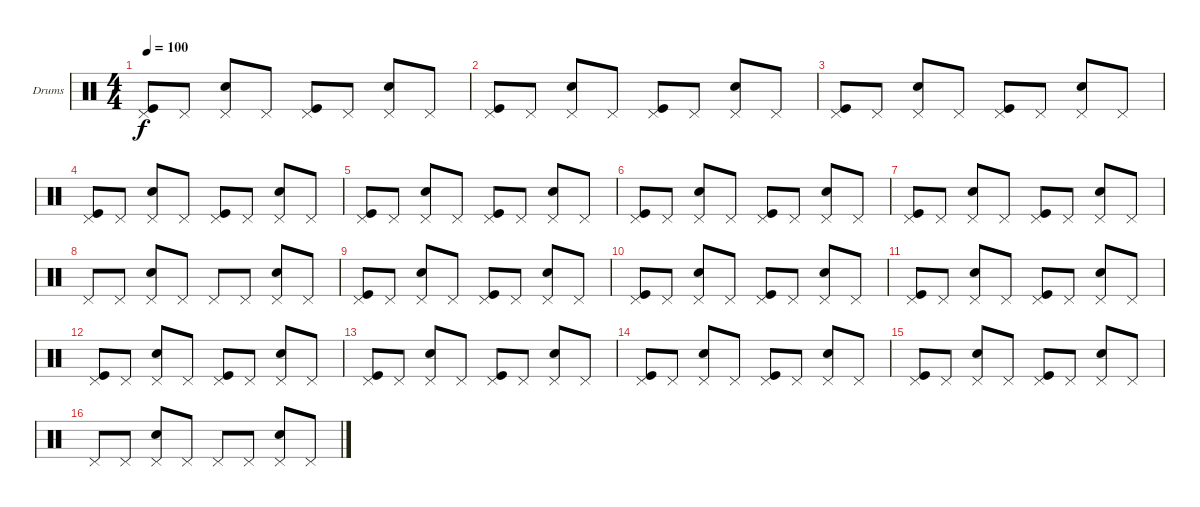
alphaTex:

\defaultSystemsLayout 4
\bracketExtendMode groupsimilarinstruments
\firstSystemTrackNameOrientation horizontal
\otherSystemsTrackNameOrientation horizontal
\track ("Drumkit" "Drums") {instrument percussion}
\staff {score}
\articulation defaults
\ts (4 4)
\tempo 100
\clef neutral
\scale
0.474178
\ks c
("Pedal Hi-Hat (hit)" "Kick (hit)").8{dy f} "Pedal Hi-Hat (hit)".8 ("Pedal Hi-Hat (hit)" "Snare (hit) 2").8 "Pedal Hi-Hat (hit)".8 ("Pedal Hi-Hat (hit)" "Kick (hit)").8 "Pedal Hi-Hat (hit)".8 ("Pedal Hi-Hat (hit)" "Snare (hit) 2").8 "Pedal Hi-Hat (hit)".8 |
\scale
0.262911 ("Pedal Hi-Hat (hit)" "Kick (hit)").8 "Pedal Hi-Hat (hit)".8 ("Pedal Hi-Hat (hit)" "Snare (hit) 2").8 "Pedal Hi-Hat (hit)".8 ("Pedal Hi-Hat (hit)" "Kick (hit)").8 "Pedal Hi-Hat (hit)".8 ("Pedal Hi-Hat (hit)" "Snare (hit) 2").8 "Pedal Hi-Hat (hit)".8 |
\scale
0.262911 ("Pedal Hi-Hat (hit)" "Kick (hit)").8 "Pedal Hi-Hat (hit)".8 ("Pedal Hi-Hat (hit)" "Snare (hit) 2").8 "Pedal Hi-Hat (hit)".8 ("Pedal Hi-Hat (hit)" "Kick (hit)").8 "Pedal Hi-Hat (hit)".8 ("Pedal Hi-Hat (hit)" "Snare (hit) 2").8 "Pedal Hi-Hat (hit)".8 |
\scale
0.333333 ("Pedal Hi-Hat (hit)" "Kick (hit)").8 "Pedal Hi-Hat (hit)".8 ("Pedal Hi-Hat (hit)" "Snare (hit) 2").8 "Pedal Hi-Hat (hit)".8 ("Pedal Hi-Hat (hit)" "Kick (hit)").8 "Pedal Hi-Hat (hit)".8 ("Pedal Hi-Hat (hit)" "Snare (hit) 2").8 "Pedal Hi-Hat (hit)".8 |
\scale
0.333333 ("Pedal Hi-Hat (hit)" "Kick (hit)").8 "Pedal Hi-Hat (hit)".8 ("Pedal Hi-Hat (hit)" "Snare (hit) 2").8 "Pedal Hi-Hat (hit)".8 ("Pedal Hi-Hat (hit)" "Kick (hit)").8 "Pedal Hi-Hat (hit)".8 ("Pedal Hi-Hat (hit)" "Snare (hit) 2").8 "Pedal Hi-Hat (hit)".8 |
\scale
0.333333 ("Pedal Hi-Hat (hit)" "Kick (hit)").8 "Pedal Hi-Hat (hit)".8 ("Pedal Hi-Hat (hit)" "Snare (hit) 2").8 "Pedal Hi-Hat (hit)".8 ("Pedal Hi-Hat (hit)" "Kick (hit)").8 "Pedal Hi-Hat (hit)".8 ("Pedal Hi-Hat (hit)" "Snare (hit) 2").8 "Pedal Hi-Hat (hit)".8 |
("Pedal Hi-Hat (hit)" "Kick (hit)").8 "Pedal Hi-Hat (hit)".8 ("Pedal Hi-Hat (hit)" "Snare (hit) 2").8 "Pedal Hi-Hat (hit)".8 ("Pedal Hi-Hat (hit)" "Kick (hit)").8 "Pedal Hi-Hat (hit)".8 ("Pedal Hi-Hat (hit)" "Snare (hit) 2").8 "Pedal Hi-Hat (hit)".8 |
"Pedal Hi-Hat (hit)".8 "Pedal Hi-Hat (hit)".8 ("Pedal Hi-Hat (hit)" "Snare (hit) 2").8 "Pedal Hi-Hat (hit)".8 "Pedal Hi-Hat (hit)".8 "Pedal Hi-Hat (hit)".8 ("Pedal Hi-Hat (hit)" "Snare (hit) 2").8 "Pedal Hi-Hat (hit)".8 |
("Pedal Hi-Hat (hit)" "Kick (hit)").8 "Pedal Hi-Hat (hit)".8 ("Pedal Hi-Hat (hit)" "Snare (hit) 2").8 "Pedal Hi-Hat (hit)".8 ("Pedal Hi-Hat (hit)" "Kick (hit)").8 "Pedal Hi-Hat (hit)".8 ("Pedal Hi-Hat (hit)" "Snare (hit) 2").8 "Pedal Hi-Hat (hit)".8 |
("Pedal Hi-Hat (hit)" "Kick (hit)").8 "Pedal Hi-Hat (hit)".8 ("Pedal Hi-Hat (hit)" "Snare (hit) 2").8 "Pedal Hi-Hat (hit)".8 ("Pedal Hi-Hat (hit)" "Kick (hit)").8 "Pedal Hi-Hat (hit)".8 ("Pedal Hi-Hat (hit)" "Snare (hit) 2").8 "Pedal Hi-Hat (hit)".8 |
("Pedal Hi-Hat (hit)" "Kick (hit)").8 "Pedal Hi-Hat (hit)".8 ("Pedal Hi-Hat (hit)" "Snare (hit) 2").8 "Pedal Hi-Hat (hit)".8 ("Pedal Hi-Hat (hit)" "Kick (hit)").8 "Pedal Hi-Hat (hit)".8 ("Pedal Hi-Hat (hit)" "Snare (hit) 2").8 "Pedal Hi-Hat (hit)".8 |
("Pedal Hi-Hat (hit)" "Kick (hit)").8 "Pedal Hi-Hat (hit)".8 ("Pedal Hi-Hat (hit)" "Snare (hit) 2").8 "Pedal Hi-Hat (hit)".8 ("Pedal Hi-Hat (hit)" "Kick (hit)").8 "Pedal Hi-Hat (hit)".8 ("Pedal Hi-Hat (hit)" "Snare (hit) 2").8 "Pedal Hi-Hat (hit)".8 |
("Pedal Hi-Hat (hit)" "Kick (hit)").8 "Pedal Hi-Hat (hit)".8 ("Pedal Hi-Hat (hit)" "Snare (hit) 2").8 "Pedal Hi-Hat (hit)".8 ("Pedal Hi-Hat (hit)" "Kick (hit)").8 "Pedal Hi-Hat (hit)".8 ("Pedal Hi-Hat (hit)" "Snare (hit) 2").8 "Pedal Hi-Hat (hit)".8 |
("Pedal Hi-Hat (hit)" "Kick (hit)").8 "Pedal Hi-Hat (hit)".8 ("Pedal Hi-Hat (hit)" "Snare (hit) 2").8 "Pedal Hi-Hat (hit)".8 ("Pedal Hi-Hat (hit)" "Kick (hit)").8 "Pedal Hi-Hat (hit)".8 ("Pedal Hi-Hat (hit)" "Snare (hit) 2").8 "Pedal Hi-Hat (hit)".8 |
("Pedal Hi-Hat (hit)" "Kick (hit)").8 "Pedal Hi-Hat (hit)".8 ("Pedal Hi-Hat (hit)" "Snare (hit) 2").8 "Pedal Hi-Hat (hit)".8 ("Pedal Hi-Hat (hit)" "Kick (hit)").8 "Pedal Hi-Hat (hit)".8 ("Pedal Hi-Hat (hit)" "Snare (hit) 2").8 "Pedal Hi-Hat (hit)".8 |
"Pedal Hi-Hat (hit)".8 "Pedal Hi-Hat (hit)".8 ("Pedal Hi-Hat (hit)" "Snare (hit) 2").8 "Pedal Hi-Hat (hit)".8 "Pedal Hi-Hat (hit)".8 "Pedal Hi-Hat (hit)".8 ("Pedal Hi-Hat (hit)" "Snare (hit) 2").8 "Pedal Hi-Hat (hit)".8
